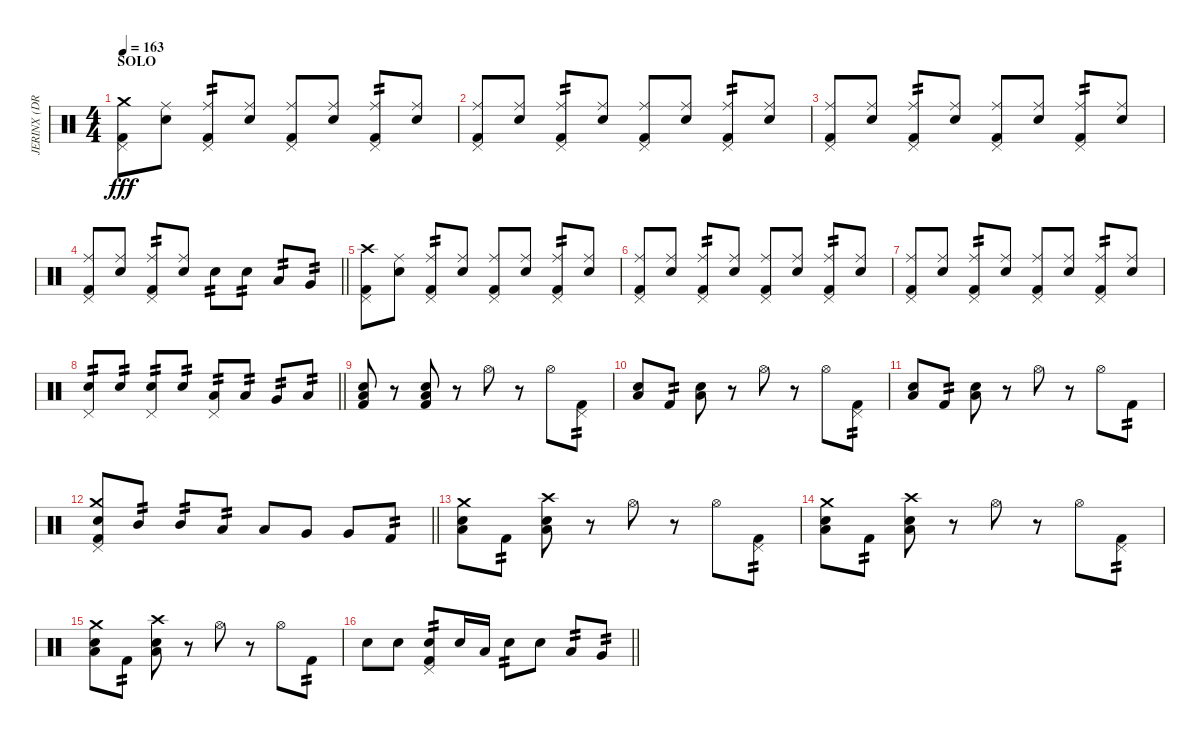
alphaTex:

\track ("JERINX (DRUM)" "JERINX (DR") {instrument percussion}
\staff {score}
\articulation defaults
\ts (4 4)
\section ("" "SOLO")
\tempo 163
\clef neutral
\ks c
("Pedal Hi-Hat (hit)" "Kick (hit) 2" "Crash medium (hit)").8{dy fff} ("Snare (hit) 2" "Ride (middle)").8 ("Pedal Hi-Hat (hit)" "Kick (hit) 2" "Ride (middle)").8{tp 2} ("Snare (hit) 2" "Ride (middle)").8 ("Pedal Hi-Hat (hit)" "Kick (hit) 2" "Ride (middle)").8 ("Snare (hit) 2" "Ride (middle)").8 ("Pedal Hi-Hat (hit)" "Kick (hit) 2" "Ride (middle)").8{tp 2} ("Snare (hit) 2" "Ride (middle)").8 |
("Pedal Hi-Hat (hit)" "Kick (hit) 2" "Ride (middle)").8 ("Snare (hit) 2" "Ride (middle)").8 ("Pedal Hi-Hat (hit)" "Kick (hit) 2" "Ride (middle)").8{tp 2} ("Snare (hit) 2" "Ride (middle)").8 ("Pedal Hi-Hat (hit)" "Kick (hit) 2" "Ride (middle)").8 ("Snare (hit) 2" "Ride (middle)").8 ("Pedal Hi-Hat (hit)" "Kick (hit) 2" "Ride (middle)").8{tp 2} ("Snare (hit) 2" "Ride (middle)").8 |
("Pedal Hi-Hat (hit)" "Kick (hit) 2" "Ride (middle)").8 ("Snare (hit) 2" "Ride (middle)").8 ("Pedal Hi-Hat (hit)" "Kick (hit) 2" "Ride (middle)").8{tp 2} ("Snare (hit) 2" "Ride (middle)").8 ("Pedal Hi-Hat (hit)" "Kick (hit) 2" "Ride (middle)").8 ("Snare (hit) 2" "Ride (middle)").8 ("Pedal Hi-Hat (hit)" "Kick (hit) 2" "Ride (middle)").8{tp 2} ("Snare (hit) 2" "Ride (middle)").8 |
\barLineRight lightlight
("Pedal Hi-Hat (hit)" "Kick (hit) 2" "Ride (middle)").8 ("Snare (hit) 2" "Ride (middle)").8 ("Pedal Hi-Hat (hit)" "Kick (hit) 2" "Ride (middle)").8{tp 2} ("Snare (hit) 2" "Ride (middle)").8 "Snare (hit) 2".8{tp 2} "Snare (hit) 2".8{tp 2} "Low Tom (hit)".8{tp 2} "Very Low Tom (hit)".8{tp 2} |
("Pedal Hi-Hat (hit)" "Kick (hit) 2" "Crash high (hit)").8 ("Snare (hit) 2" "Ride (middle)").8 ("Pedal Hi-Hat (hit)" "Kick (hit) 2" "Ride (middle)").8{tp 2} ("Snare (hit) 2" "Ride (middle)").8 ("Pedal Hi-Hat (hit)" "Kick (hit) 2" "Ride (middle)").8 ("Snare (hit) 2" "Ride (middle)").8 ("Pedal Hi-Hat (hit)" "Kick (hit) 2" "Ride (middle)").8{tp 2} ("Snare (hit) 2" "Ride (middle)").8 |
("Pedal Hi-Hat (hit)" "Kick (hit) 2" "Ride (middle)").8 ("Snare (hit) 2" "Ride (middle)").8 ("Pedal Hi-Hat (hit)" "Kick (hit) 2" "Ride (middle)").8{tp 2} ("Snare (hit) 2" "Ride (middle)").8 ("Pedal Hi-Hat (hit)" "Kick (hit) 2" "Ride (middle)").8 ("Snare (hit) 2" "Ride (middle)").8 ("Pedal Hi-Hat (hit)" "Kick (hit) 2" "Ride (middle)").8{tp 2} ("Snare (hit) 2" "Ride (middle)").8 |
("Pedal Hi-Hat (hit)" "Kick (hit) 2" "Ride (middle)").8 ("Snare (hit) 2" "Ride (middle)").8 ("Pedal Hi-Hat (hit)" "Kick (hit) 2" "Ride (middle)").8{tp 2} ("Snare (hit) 2" "Ride (middle)").8 ("Pedal Hi-Hat (hit)" "Kick (hit) 2" "Ride (middle)").8 ("Snare (hit) 2" "Ride (middle)").8 ("Pedal Hi-Hat (hit)" "Kick (hit) 2" "Ride (middle)").8{tp 2} ("Snare (hit) 2" "Ride (middle)").8 |
\barLineRight lightlight
("Pedal Hi-Hat (hit)" "Snare (hit) 2").8{tp 2} "Snare (hit) 2".8{tp 2} ("Pedal Hi-Hat (hit)" "Snare (hit) 2").8{tp 2} "Snare (hit) 2".8{tp 2} ("Pedal Hi-Hat (hit)" "Low Tom (hit)").8{tp 2} "Low Tom (hit)".8{tp 2} "Very Low Tom (hit)".8{tp 2} "Low Floor Tom (hit)".8{tp 2} |
("Snare (hit) 2" "Kick (hit) 2" "Low Floor Tom (hit)").8 r.8 ("Snare (hit) 2" "Kick (hit) 2" "Low Floor Tom (hit)").8 r.8 "Hi-Hat (open)".8 r.8 "Hi-Hat (open)".8 ("Pedal Hi-Hat (hit)" "Kick (hit) 2").8{tp 2} |
("Snare (hit) 2" "Low Floor Tom (hit)").8 "Kick (hit) 2".8{tp 2} ("Snare (hit) 2" "Low Floor Tom (hit)").8 r.8 "Hi-Hat (open)".8 r.8 "Hi-Hat (open)".8 ("Pedal Hi-Hat (hit)" "Kick (hit) 2").8{tp 2} |
("Snare (hit) 2" "Low Floor Tom (hit)").8 "Kick (hit) 2".8{tp 2} ("Snare (hit) 2" "Low Floor Tom (hit)").8 r.8 "Hi-Hat (open)".8 r.8 "Hi-Hat (open)".8 "Kick (hit) 2".8{tp 2} |
\barLineRight lightlight
("Pedal Hi-Hat (hit)" "Snare (hit) 2" "Kick (hit) 2" "Crash medium (hit)").8 "Mid Tom (hit)".8{tp 2} "Mid Tom (hit)".8{tp 2} "Low Tom (hit)".8{tp 2} "Low Tom (hit)".8 "Very Low Tom (hit)".8 "Very Low Tom (hit)".8 "Kick (hit) 2".8{tp 2} |
("Snare (hit) 2" "Low Floor Tom (hit)" "Crash medium (hit)").8 "Kick (hit) 2".8{tp 2} ("Snare (hit) 2" "Low Floor Tom (hit)" "Crash high (hit)").8 r.8 "Hi-Hat (open)".8 r.8 "Hi-Hat (open)".8 ("Pedal Hi-Hat (hit)" "Kick (hit) 2").8{tp 2} |
("Snare (hit) 2" "Low Floor Tom (hit)" "Crash medium (hit)").8 "Kick (hit) 2".8{tp 2} ("Snare (hit) 2" "Low Floor Tom (hit)" "Crash high (hit)").8 r.8 "Hi-Hat (open)".8 r.8 "Hi-Hat (open)".8 ("Pedal Hi-Hat (hit)" "Kick (hit) 2").8{tp 2} |
("Snare (hit) 2" "Low Floor Tom (hit)" "Crash medium (hit)").8 "Kick (hit) 2".8{tp 2} ("Snare (hit) 2" "Low Floor Tom (hit)" "Crash high (hit)").8 r.8 "Hi-Hat (open)".8 r.8 "Hi-Hat (open)".8 "Kick (hit) 2".8{tp 2} |
\barLineRight lightlight "Snare (hit) 2".8 "Snare (hit) 2".8
("Pedal Hi-Hat (hit)" "Snare (hit) 2" "Kick (hit) 2").8{tp 2} "Snare (hit) 2".16 "Low Tom (hit)".16 "Snare (hit) 2".8{tp 2} "Snare (hit) 2".8 "Low Tom (hit)".8{tp 2} "Very Low Tom (hit)".8{tp 2}
